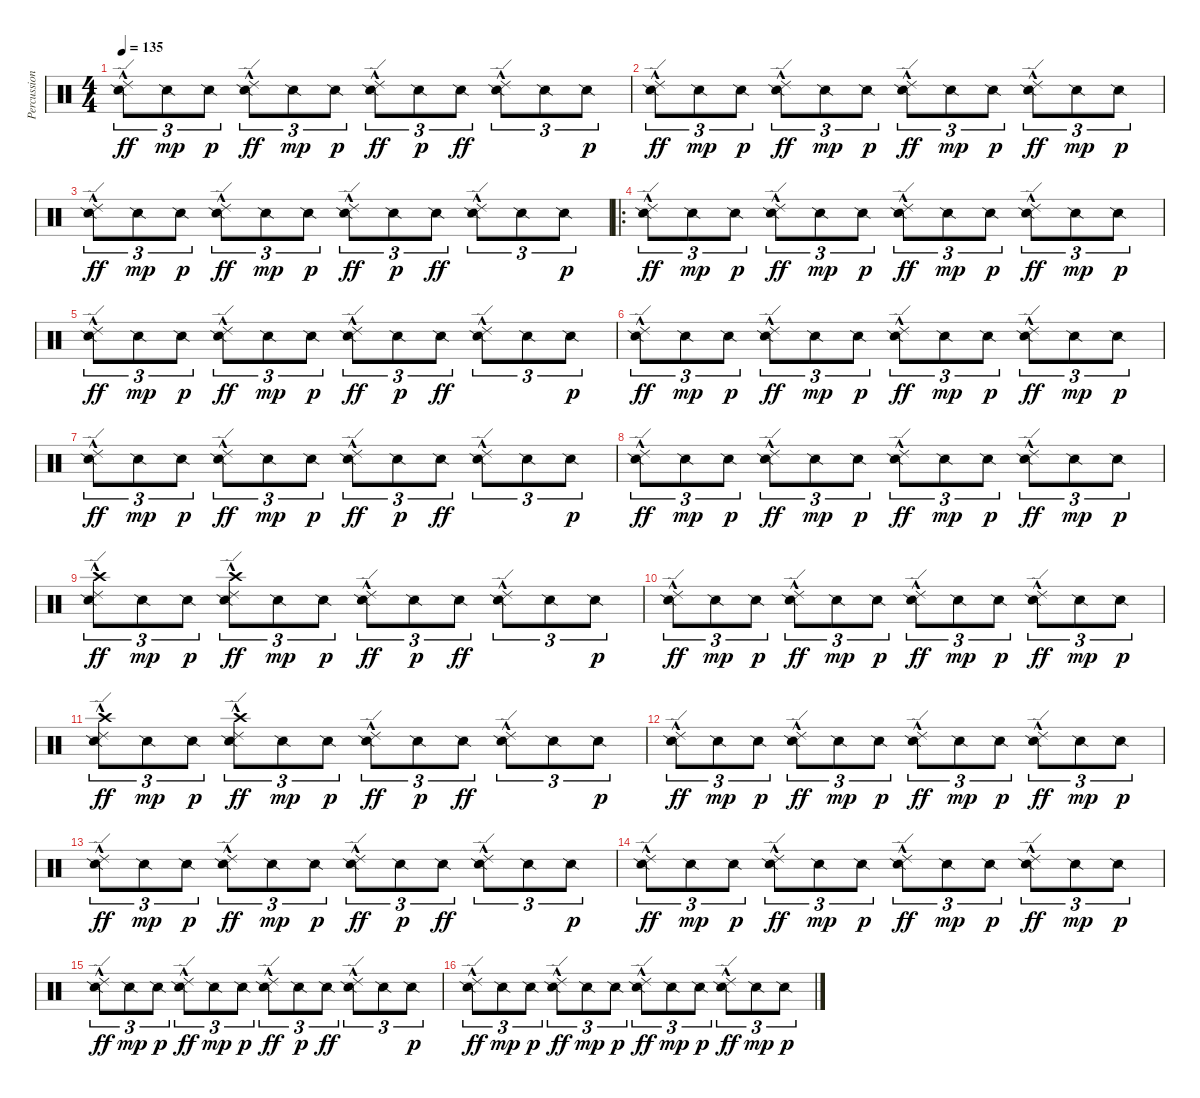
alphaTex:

\track ("Percussion" "Percussion") {instrument percussion}
\staff {score}
\articulation defaults
\ts (4 4)
\tempo 135
\clef neutral
\ks c
("Snare (side stick) 2" "Ride (edge) 2"{hac}).8{tu (3 2) dy ff} "Snare (side stick) 2".8{tu (3 2) dy mp} "Snare (side stick) 2".8{tu (3 2) dy p} ("Snare (side stick) 2" "Ride (edge) 2"{hac}).8{tu (3 2) dy ff} "Snare (side stick) 2".8{tu (3 2) dy mp} "Snare (side stick) 2".8{tu (3 2) dy p} ("Snare (side stick) 2" "Ride (edge) 2"{hac}).8{tu (3 2) dy ff} "Snare (side stick) 2".8{tu (3 2) dy p} "Snare (side stick) 2".8{tu (3 2) dy ff} ("Snare (side stick) 2" "Ride (edge) 2"{hac}).8{tu (3 2)} "Snare (side stick) 2".8{tu (3 2)} "Snare (side stick) 2".8{tu (3 2) dy p} |
("Snare (side stick) 2" "Ride (edge) 2"{hac}).8{tu (3 2) dy ff} "Snare (side stick) 2".8{tu (3 2) dy mp} "Snare (side stick) 2".8{tu (3 2) dy p} ("Snare (side stick) 2" "Ride (edge) 2"{hac}).8{tu (3 2) dy ff} "Snare (side stick) 2".8{tu (3 2) dy mp} "Snare (side stick) 2".8{tu (3 2) dy p} ("Snare (side stick) 2" "Ride (edge) 2"{hac}).8{tu (3 2) dy ff} "Snare (side stick) 2".8{tu (3 2) dy mp} "Snare (side stick) 2".8{tu (3 2) dy p} ("Snare (side stick) 2" "Ride (edge) 2"{hac}).8{tu (3 2) dy ff} "Snare (side stick) 2".8{tu (3 2) dy mp} "Snare (side stick) 2".8{tu (3 2) dy p} |
("Snare (side stick) 2" "Ride (edge) 2"{hac}).8{tu (3 2) dy ff} "Snare (side stick) 2".8{tu (3 2) dy mp} "Snare (side stick) 2".8{tu (3 2) dy p} ("Snare (side stick) 2" "Ride (edge) 2"{hac}).8{tu (3 2) dy ff} "Snare (side stick) 2".8{tu (3 2) dy mp} "Snare (side stick) 2".8{tu (3 2) dy p} ("Snare (side stick) 2" "Ride (edge) 2"{hac}).8{tu (3 2) dy ff} "Snare (side stick) 2".8{tu (3 2) dy p} "Snare (side stick) 2".8{tu (3 2) dy ff} ("Snare (side stick) 2" "Ride (edge) 2"{hac}).8{tu (3 2)} "Snare (side stick) 2".8{tu (3 2)} "Snare (side stick) 2".8{tu (3 2) dy p} |
\ro
("Snare (side stick) 2" "Ride (edge) 2"{hac}).8{tu (3 2) dy ff} "Snare (side stick) 2".8{tu (3 2) dy mp} "Snare (side stick) 2".8{tu (3 2) dy p} ("Snare (side stick) 2" "Ride (edge) 2"{hac}).8{tu (3 2) dy ff} "Snare (side stick) 2".8{tu (3 2) dy mp} "Snare (side stick) 2".8{tu (3 2) dy p} ("Snare (side stick) 2" "Ride (edge) 2"{hac}).8{tu (3 2) dy ff} "Snare (side stick) 2".8{tu (3 2) dy mp} "Snare (side stick) 2".8{tu (3 2) dy p} ("Snare (side stick) 2" "Ride (edge) 2"{hac}).8{tu (3 2) dy ff} "Snare (side stick) 2".8{tu (3 2) dy mp} "Snare (side stick) 2".8{tu (3 2) dy p} |
("Snare (side stick) 2" "Ride (edge) 2"{hac}).8{tu (3 2) dy ff} "Snare (side stick) 2".8{tu (3 2) dy mp} "Snare (side stick) 2".8{tu (3 2) dy p} ("Snare (side stick) 2" "Ride (edge) 2"{hac}).8{tu (3 2) dy ff} "Snare (side stick) 2".8{tu (3 2) dy mp} "Snare (side stick) 2".8{tu (3 2) dy p} ("Snare (side stick) 2" "Ride (edge) 2"{hac}).8{tu (3 2) dy ff} "Snare (side stick) 2".8{tu (3 2) dy p} "Snare (side stick) 2".8{tu (3 2) dy ff} ("Snare (side stick) 2" "Ride (edge) 2"{hac}).8{tu (3 2)} "Snare (side stick) 2".8{tu (3 2)} "Snare (side stick) 2".8{tu (3 2) dy p} |
("Snare (side stick) 2" "Ride (edge) 2"{hac}).8{tu (3 2) dy ff} "Snare (side stick) 2".8{tu (3 2) dy mp} "Snare (side stick) 2".8{tu (3 2) dy p} ("Snare (side stick) 2" "Ride (edge) 2"{hac}).8{tu (3 2) dy ff} "Snare (side stick) 2".8{tu (3 2) dy mp} "Snare (side stick) 2".8{tu (3 2) dy p} ("Snare (side stick) 2" "Ride (edge) 2"{hac}).8{tu (3 2) dy ff} "Snare (side stick) 2".8{tu (3 2) dy mp} "Snare (side stick) 2".8{tu (3 2) dy p} ("Snare (side stick) 2" "Ride (edge) 2"{hac}).8{tu (3 2) dy ff} "Snare (side stick) 2".8{tu (3 2) dy mp} "Snare (side stick) 2".8{tu (3 2) dy p} |
("Snare (side stick) 2" "Ride (edge) 2"{hac}).8{tu (3 2) dy ff} "Snare (side stick) 2".8{tu (3 2) dy mp} "Snare (side stick) 2".8{tu (3 2) dy p} ("Snare (side stick) 2" "Ride (edge) 2"{hac}).8{tu (3 2) dy ff} "Snare (side stick) 2".8{tu (3 2) dy mp} "Snare (side stick) 2".8{tu (3 2) dy p} ("Snare (side stick) 2" "Ride (edge) 2"{hac}).8{tu (3 2) dy ff} "Snare (side stick) 2".8{tu (3 2) dy p} "Snare (side stick) 2".8{tu (3 2) dy ff} ("Snare (side stick) 2" "Ride (edge) 2"{hac}).8{tu (3 2)} "Snare (side stick) 2".8{tu (3 2)} "Snare (side stick) 2".8{tu (3 2) dy p} |
("Snare (side stick) 2" "Ride (edge) 2"{hac}).8{tu (3 2) dy ff} "Snare (side stick) 2".8{tu (3 2) dy mp} "Snare (side stick) 2".8{tu (3 2) dy p} ("Snare (side stick) 2" "Ride (edge) 2"{hac}).8{tu (3 2) dy ff} "Snare (side stick) 2".8{tu (3 2) dy mp} "Snare (side stick) 2".8{tu (3 2) dy p} ("Snare (side stick) 2" "Ride (edge) 2"{hac}).8{tu (3 2) dy ff} "Snare (side stick) 2".8{tu (3 2) dy mp} "Snare (side stick) 2".8{tu (3 2) dy p} ("Snare (side stick) 2" "Ride (edge) 2"{hac}).8{tu (3 2) dy ff} "Snare (side stick) 2".8{tu (3 2) dy mp} "Snare (side stick) 2".8{tu (3 2) dy p} |
("Snare (side stick) 2" "Ride (edge) 2"{hac} "Crash high (hit)").8{tu (3 2) dy ff} "Snare (side stick) 2".8{tu (3 2) dy mp} "Snare (side stick) 2".8{tu (3 2) dy p} ("Snare (side stick) 2" "Ride (edge) 2"{hac} "Crash high (hit)").8{tu (3 2) dy ff} "Snare (side stick) 2".8{tu (3 2) dy mp} "Snare (side stick) 2".8{tu (3 2) dy p} ("Snare (side stick) 2" "Ride (edge) 2"{hac}).8{tu (3 2) dy ff} "Snare (side stick) 2".8{tu (3 2) dy p} "Snare (side stick) 2".8{tu (3 2) dy ff} ("Snare (side stick) 2" "Ride (edge) 2"{hac}).8{tu (3 2)} "Snare (side stick) 2".8{tu (3 2)} "Snare (side stick) 2".8{tu (3 2) dy p} |
("Snare (side stick) 2" "Ride (edge) 2"{hac}).8{tu (3 2) dy ff} "Snare (side stick) 2".8{tu (3 2) dy mp} "Snare (side stick) 2".8{tu (3 2) dy p} ("Snare (side stick) 2" "Ride (edge) 2"{hac}).8{tu (3 2) dy ff} "Snare (side stick) 2".8{tu (3 2) dy mp} "Snare (side stick) 2".8{tu (3 2) dy p} ("Snare (side stick) 2" "Ride (edge) 2"{hac}).8{tu (3 2) dy ff} "Snare (side stick) 2".8{tu (3 2) dy mp} "Snare (side stick) 2".8{tu (3 2) dy p} ("Snare (side stick) 2" "Ride (edge) 2"{hac}).8{tu (3 2) dy ff} "Snare (side stick) 2".8{tu (3 2) dy mp} "Snare (side stick) 2".8{tu (3 2) dy p} |
("Snare (side stick) 2" "Ride (edge) 2"{hac} "Crash high (hit)").8{tu (3 2) dy ff} "Snare (side stick) 2".8{tu (3 2) dy mp} "Snare (side stick) 2".8{tu (3 2) dy p} ("Snare (side stick) 2" "Ride (edge) 2"{hac} "Crash high (hit)").8{tu (3 2) dy ff} "Snare (side stick) 2".8{tu (3 2) dy mp} "Snare (side stick) 2".8{tu (3 2) dy p} ("Snare (side stick) 2" "Ride (edge) 2"{hac}).8{tu (3 2) dy ff} "Snare (side stick) 2".8{tu (3 2) dy p} "Snare (side stick) 2".8{tu (3 2) dy ff} ("Snare (side stick) 2" "Ride (edge) 2"{hac}).8{tu (3 2)} "Snare (side stick) 2".8{tu (3 2)} "Snare (side stick) 2".8{tu (3 2) dy p} |
("Snare (side stick) 2" "Ride (edge) 2"{hac}).8{tu (3 2) dy ff} "Snare (side stick) 2".8{tu (3 2) dy mp} "Snare (side stick) 2".8{tu (3 2) dy p} ("Snare (side stick) 2" "Ride (edge) 2"{hac}).8{tu (3 2) dy ff} "Snare (side stick) 2".8{tu (3 2) dy mp} "Snare (side stick) 2".8{tu (3 2) dy p} ("Snare (side stick) 2" "Ride (edge) 2"{hac}).8{tu (3 2) dy ff} "Snare (side stick) 2".8{tu (3 2) dy mp} "Snare (side stick) 2".8{tu (3 2) dy p} ("Snare (side stick) 2" "Ride (edge) 2"{hac}).8{tu (3 2) dy ff} "Snare (side stick) 2".8{tu (3 2) dy mp} "Snare (side stick) 2".8{tu (3 2) dy p} |
("Snare (side stick) 2" "Ride (edge) 2"{hac}).8{tu (3 2) dy ff} "Snare (side stick) 2".8{tu (3 2) dy mp} "Snare (side stick) 2".8{tu (3 2) dy p} ("Snare (side stick) 2" "Ride (edge) 2"{hac}).8{tu (3 2) dy ff} "Snare (side stick) 2".8{tu (3 2) dy mp} "Snare (side stick) 2".8{tu (3 2) dy p} ("Snare (side stick) 2" "Ride (edge) 2"{hac}).8{tu (3 2) dy ff} "Snare (side stick) 2".8{tu (3 2) dy p} "Snare (side stick) 2".8{tu (3 2) dy ff} ("Snare (side stick) 2" "Ride (edge) 2"{hac}).8{tu (3 2)} "Snare (side stick) 2".8{tu (3 2)} "Snare (side stick) 2".8{tu (3 2) dy p} |
("Snare (side stick) 2" "Ride (edge) 2"{hac}).8{tu (3 2) dy ff} "Snare (side stick) 2".8{tu (3 2) dy mp} "Snare (side stick) 2".8{tu (3 2) dy p} ("Snare (side stick) 2" "Ride (edge) 2"{hac}).8{tu (3 2) dy ff} "Snare (side stick) 2".8{tu (3 2) dy mp} "Snare (side stick) 2".8{tu (3 2) dy p} ("Snare (side stick) 2" "Ride (edge) 2"{hac}).8{tu (3 2) dy ff} "Snare (side stick) 2".8{tu (3 2) dy mp} "Snare (side stick) 2".8{tu (3 2) dy p} ("Snare (side stick) 2" "Ride (edge) 2"{hac}).8{tu (3 2) dy ff} "Snare (side stick) 2".8{tu (3 2) dy mp} "Snare (side stick) 2".8{tu (3 2) dy p} |
("Snare (side stick) 2" "Ride (edge) 2"{hac}).8{tu (3 2) dy ff} "Snare (side stick) 2".8{tu (3 2) dy mp} "Snare (side stick) 2".8{tu (3 2) dy p} ("Snare (side stick) 2" "Ride (edge) 2"{hac}).8{tu (3 2) dy ff} "Snare (side stick) 2".8{tu (3 2) dy mp} "Snare (side stick) 2".8{tu (3 2) dy p} ("Snare (side stick) 2" "Ride (edge) 2"{hac}).8{tu (3 2) dy ff} "Snare (side stick) 2".8{tu (3 2) dy p} "Snare (side stick) 2".8{tu (3 2) dy ff} ("Snare (side stick) 2" "Ride (edge) 2"{hac}).8{tu (3 2)} "Snare (side stick) 2".8{tu (3 2)} "Snare (side stick) 2".8{tu (3 2) dy p} |
("Snare (side stick) 2" "Ride (edge) 2"{hac}).8{tu (3 2) dy ff} "Snare (side stick) 2".8{tu (3 2) dy mp} "Snare (side stick) 2".8{tu (3 2) dy p} ("Snare (side stick) 2" "Ride (edge) 2"{hac}).8{tu (3 2) dy ff} "Snare (side stick) 2".8{tu (3 2) dy mp} "Snare (side stick) 2".8{tu (3 2) dy p} ("Snare (side stick) 2" "Ride (edge) 2"{hac}).8{tu (3 2) dy ff} "Snare (side stick) 2".8{tu (3 2) dy mp} "Snare (side stick) 2".8{tu (3 2) dy p} ("Snare (side stick) 2" "Ride (edge) 2"{hac}).8{tu (3 2) dy ff} "Snare (side stick) 2".8{tu (3 2) dy mp} "Snare (side stick) 2".8{tu (3 2) dy p}
